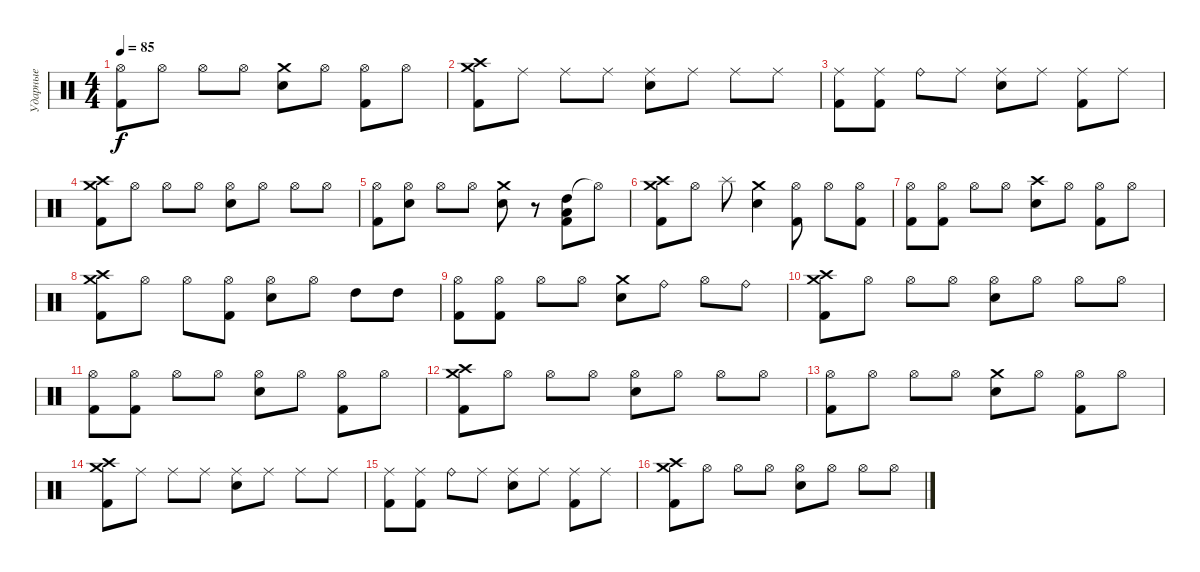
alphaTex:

\track ("Ударные" "Ударные") {instrument percussion}
\staff {score}
\articulation defaults
\ts (4 4)
\tempo 85
\clef neutral
\ks c
("Hi-Hat (open)" "Kick (hit) 2").8{dy f} "Hi-Hat (open)".8 "Hi-Hat (open)".8 "Hi-Hat (open)".8 ("Crash medium (hit)" "Electric Snare (hit)").8 "Hi-Hat (open)".8 ("Hi-Hat (open)" "Kick (hit) 2").8 "Hi-Hat (open)".8 |
("Crash high (hit)" "Crash medium (hit)" "Kick (hit) 2").8 "Ride (middle)".8 "Ride (middle)".8 "Ride (middle)".8 ("Ride (middle)" "Electric Snare (hit)").8 "Ride (middle)".8 "Ride (middle)".8 "Ride (middle)".8 |
("Ride (middle)" "Kick (hit) 2").8 ("Ride (middle)" "Kick (hit) 2").8 "Ride (bell)".8 "Ride (middle)".8 ("Ride (middle)" "Electric Snare (hit)").8 "Ride (middle)".8 ("Ride (middle)" "Kick (hit) 2").8 "Ride (middle)".8 |
("Crash high (hit)" "Crash medium (hit)" "Kick (hit) 2").8 "Hi-Hat (open)".8 "Hi-Hat (open)".8 "Hi-Hat (open)".8 ("Hi-Hat (open)" "Electric Snare (hit)").8 "Hi-Hat (open)".8 "Hi-Hat (open)".8 "Hi-Hat (open)".8 |
("Hi-Hat (open)" "Kick (hit) 2").8 ("Hi-Hat (open)" "Electric Snare (hit)").8 "Hi-Hat (open)".8 "Hi-Hat (open)".8 ("Crash medium (hit)" "Electric Snare (hit)").8 r.8 ("High Tom (hit)" "Low Floor Tom (hit)" "Kick (hit) 2").8 "Hi-Hat (open)"{t}.8 |
("Crash high (hit)" "Crash medium (hit)" "Kick (hit) 2").8 "Hi-Hat (open)".8 "Splash (hit)".8 ("Crash medium (hit)" "Electric Snare (hit)").4 ("Hi-Hat (open)" "Kick (hit) 2").8 "Hi-Hat (open)".8 ("Hi-Hat (open)" "Kick (hit) 2").8 |
("Hi-Hat (open)" "Kick (hit) 2").8 ("Hi-Hat (open)" "Kick (hit) 2").8 "Hi-Hat (open)".8 "Hi-Hat (open)".8 ("Crash high (hit)" "Electric Snare (hit)").8 "Hi-Hat (open)".8 ("Hi-Hat (open)" "Kick (hit) 2").8 "Hi-Hat (open)".8 |
("Crash high (hit)" "Crash medium (hit)" "Kick (hit) 2").8 "Hi-Hat (open)".8 "Hi-Hat (open)".8 ("Hi-Hat (open)" "Kick (hit) 2").8 ("Hi-Hat (open)" "Electric Snare (hit)").8 "Hi-Hat (open)".8 "High Tom (hit)".8 "High Tom (hit)".8 |
("Hi-Hat (open)" "Kick (hit) 2").8 ("Hi-Hat (open)" "Kick (hit) 2").8 "Hi-Hat (open)".8 "Hi-Hat (open)".8 ("Crash medium (hit)" "Electric Snare (hit)").8 "Ride (bell)".8 "Hi-Hat (open)".8 "Ride (bell)".8 |
("Crash high (hit)" "Crash medium (hit)" "Kick (hit) 2").8 "Hi-Hat (open)".8 "Hi-Hat (open)".8 "Hi-Hat (open)".8 ("Hi-Hat (open)" "Electric Snare (hit)").8 "Hi-Hat (open)".8 "Hi-Hat (open)".8 "Hi-Hat (open)".8 |
("Hi-Hat (open)" "Kick (hit) 2").8 ("Hi-Hat (open)" "Kick (hit) 2").8 "Hi-Hat (open)".8 "Hi-Hat (open)".8 ("Hi-Hat (open)" "Electric Snare (hit)").8 "Hi-Hat (open)".8 ("Hi-Hat (open)" "Kick (hit) 2").8 "Hi-Hat (open)".8 |
("Crash high (hit)" "Crash medium (hit)" "Kick (hit) 2").8 "Hi-Hat (open)".8 "Hi-Hat (open)".8 "Hi-Hat (open)".8 ("Hi-Hat (open)" "Electric Snare (hit)").8 "Hi-Hat (open)".8 "Hi-Hat (open)".8 "Hi-Hat (open)".8 |
("Hi-Hat (open)" "Kick (hit) 2").8 "Hi-Hat (open)".8 "Hi-Hat (open)".8 "Hi-Hat (open)".8 ("Crash medium (hit)" "Electric Snare (hit)").8 "Hi-Hat (open)".8 ("Hi-Hat (open)" "Kick (hit) 2").8 "Hi-Hat (open)".8 |
("Crash high (hit)" "Crash medium (hit)" "Kick (hit) 2").8 "Ride (middle)".8 "Ride (middle)".8 "Ride (middle)".8 ("Ride (middle)" "Electric Snare (hit)").8 "Ride (middle)".8 "Ride (middle)".8 "Ride (middle)".8 |
("Ride (middle)" "Kick (hit) 2").8 ("Ride (middle)" "Kick (hit) 2").8 "Ride (bell)".8 "Ride (middle)".8 ("Ride (middle)" "Electric Snare (hit)").8 "Ride (middle)".8 ("Ride (middle)" "Kick (hit) 2").8 "Ride (middle)".8 |
("Crash high (hit)" "Crash medium (hit)" "Kick (hit) 2").8 "Hi-Hat (open)".8 "Hi-Hat (open)".8 "Hi-Hat (open)".8 ("Hi-Hat (open)" "Electric Snare (hit)").8 "Hi-Hat (open)".8 "Hi-Hat (open)".8 "Hi-Hat (open)".8
